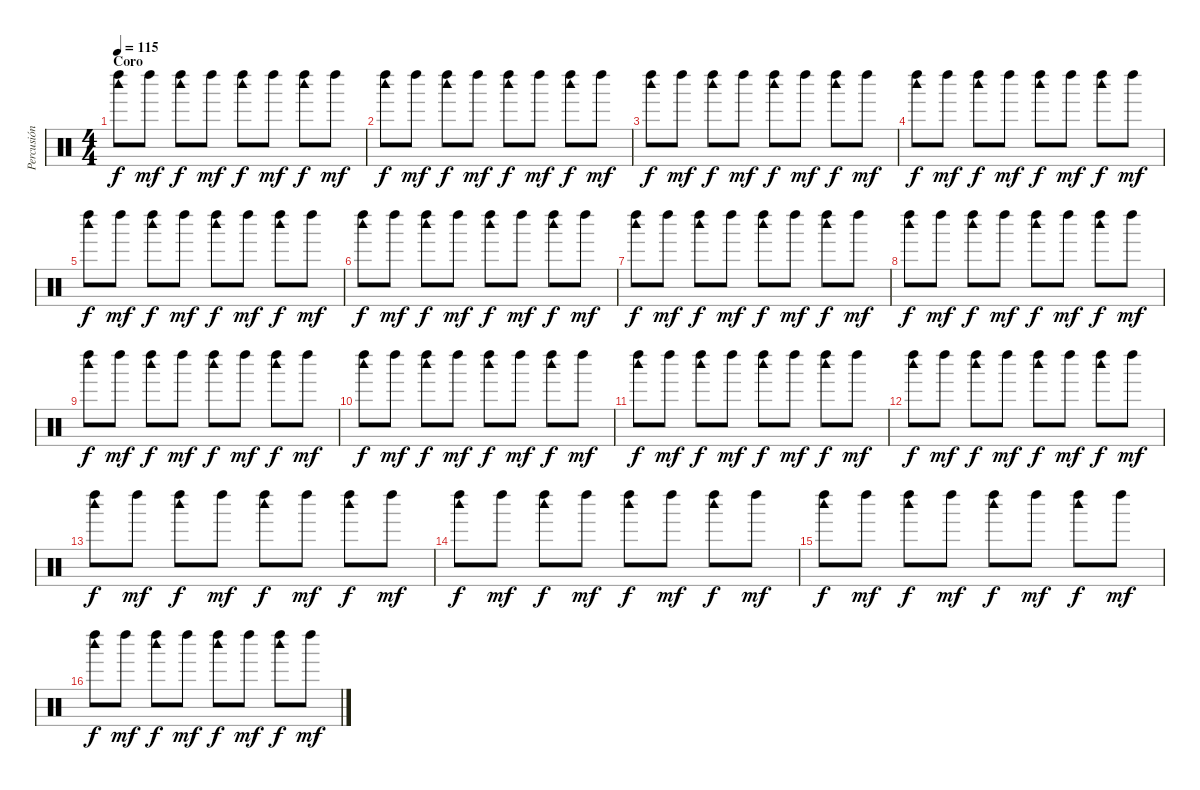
\track ("Percusión" "Percusión") {instrument percussion}
\staff {score}
\articulation defaults
\ts (4 4)
\section ("" "Coro")
\tempo 115
\clef neutral
\ks c
("Woodblock high (hit)" "Left Maraca (hit)").8{dy f} "Left Maraca (hit)".8{dy mf} ("Woodblock high (hit)" "Left Maraca (hit)").8{dy f} "Left Maraca (hit)".8{dy mf} ("Woodblock high (hit)" "Left Maraca (hit)").8{dy f} "Left Maraca (hit)".8{dy mf} ("Woodblock high (hit)" "Left Maraca (hit)").8{dy f} "Left Maraca (hit)".8{dy mf} |
("Woodblock high (hit)" "Left Maraca (hit)").8{dy f} "Left Maraca (hit)".8{dy mf} ("Woodblock high (hit)" "Left Maraca (hit)").8{dy f} "Left Maraca (hit)".8{dy mf} ("Woodblock high (hit)" "Left Maraca (hit)").8{dy f} "Left Maraca (hit)".8{dy mf} ("Woodblock high (hit)" "Left Maraca (hit)").8{dy f} "Left Maraca (hit)".8{dy mf} |
("Woodblock high (hit)" "Left Maraca (hit)").8{dy f} "Left Maraca (hit)".8{dy mf} ("Woodblock high (hit)" "Left Maraca (hit)").8{dy f} "Left Maraca (hit)".8{dy mf} ("Woodblock high (hit)" "Left Maraca (hit)").8{dy f} "Left Maraca (hit)".8{dy mf} ("Woodblock high (hit)" "Left Maraca (hit)").8{dy f} "Left Maraca (hit)".8{dy mf} |
("Woodblock high (hit)" "Left Maraca (hit)").8{dy f} "Left Maraca (hit)".8{dy mf} ("Woodblock high (hit)" "Left Maraca (hit)").8{dy f} "Left Maraca (hit)".8{dy mf} ("Woodblock high (hit)" "Left Maraca (hit)").8{dy f} "Left Maraca (hit)".8{dy mf} ("Woodblock high (hit)" "Left Maraca (hit)").8{dy f} "Left Maraca (hit)".8{dy mf} |
("Woodblock high (hit)" "Left Maraca (hit)").8{dy f} "Left Maraca (hit)".8{dy mf} ("Woodblock high (hit)" "Left Maraca (hit)").8{dy f} "Left Maraca (hit)".8{dy mf} ("Woodblock high (hit)" "Left Maraca (hit)").8{dy f} "Left Maraca (hit)".8{dy mf} ("Woodblock high (hit)" "Left Maraca (hit)").8{dy f} "Left Maraca (hit)".8{dy mf} |
("Woodblock high (hit)" "Left Maraca (hit)").8{dy f} "Left Maraca (hit)".8{dy mf} ("Woodblock high (hit)" "Left Maraca (hit)").8{dy f} "Left Maraca (hit)".8{dy mf} ("Woodblock high (hit)" "Left Maraca (hit)").8{dy f} "Left Maraca (hit)".8{dy mf} ("Woodblock high (hit)" "Left Maraca (hit)").8{dy f} "Left Maraca (hit)".8{dy mf} |
("Woodblock high (hit)" "Left Maraca (hit)").8{dy f} "Left Maraca (hit)".8{dy mf} ("Woodblock high (hit)" "Left Maraca (hit)").8{dy f} "Left Maraca (hit)".8{dy mf} ("Woodblock high (hit)" "Left Maraca (hit)").8{dy f} "Left Maraca (hit)".8{dy mf} ("Woodblock high (hit)" "Left Maraca (hit)").8{dy f} "Left Maraca (hit)".8{dy mf} |
("Woodblock high (hit)" "Left Maraca (hit)").8{dy f} "Left Maraca (hit)".8{dy mf} ("Woodblock high (hit)" "Left Maraca (hit)").8{dy f} "Left Maraca (hit)".8{dy mf} ("Woodblock high (hit)" "Left Maraca (hit)").8{dy f} "Left Maraca (hit)".8{dy mf} ("Woodblock high (hit)" "Left Maraca (hit)").8{dy f} "Left Maraca (hit)".8{dy mf} |
("Woodblock high (hit)" "Left Maraca (hit)").8{dy f} "Left Maraca (hit)".8{dy mf} ("Woodblock high (hit)" "Left Maraca (hit)").8{dy f} "Left Maraca (hit)".8{dy mf} ("Woodblock high (hit)" "Left Maraca (hit)").8{dy f} "Left Maraca (hit)".8{dy mf} ("Woodblock high (hit)" "Left Maraca (hit)").8{dy f} "Left Maraca (hit)".8{dy mf} |
("Woodblock high (hit)" "Left Maraca (hit)").8{dy f} "Left Maraca (hit)".8{dy mf} ("Woodblock high (hit)" "Left Maraca (hit)").8{dy f} "Left Maraca (hit)".8{dy mf} ("Woodblock high (hit)" "Left Maraca (hit)").8{dy f} "Left Maraca (hit)".8{dy mf} ("Woodblock high (hit)" "Left Maraca (hit)").8{dy f} "Left Maraca (hit)".8{dy mf} |
("Woodblock high (hit)" "Left Maraca (hit)").8{dy f} "Left Maraca (hit)".8{dy mf} ("Woodblock high (hit)" "Left Maraca (hit)").8{dy f} "Left Maraca (hit)".8{dy mf} ("Woodblock high (hit)" "Left Maraca (hit)").8{dy f} "Left Maraca (hit)".8{dy mf} ("Woodblock high (hit)" "Left Maraca (hit)").8{dy f} "Left Maraca (hit)".8{dy mf} |
("Woodblock high (hit)" "Left Maraca (hit)").8{dy f} "Left Maraca (hit)".8{dy mf} ("Woodblock high (hit)" "Left Maraca (hit)").8{dy f} "Left Maraca (hit)".8{dy mf} ("Woodblock high (hit)" "Left Maraca (hit)").8{dy f} "Left Maraca (hit)".8{dy mf} ("Woodblock high (hit)" "Left Maraca (hit)").8{dy f} "Left Maraca (hit)".8{dy mf} |
("Woodblock high (hit)" "Left Maraca (hit)").8{dy f} "Left Maraca (hit)".8{dy mf} ("Woodblock high (hit)" "Left Maraca (hit)").8{dy f} "Left Maraca (hit)".8{dy mf} ("Woodblock high (hit)" "Left Maraca (hit)").8{dy f} "Left Maraca (hit)".8{dy mf} ("Woodblock high (hit)" "Left Maraca (hit)").8{dy f} "Left Maraca (hit)".8{dy mf} |
("Woodblock high (hit)" "Left Maraca (hit)").8{dy f} "Left Maraca (hit)".8{dy mf} ("Woodblock high (hit)" "Left Maraca (hit)").8{dy f} "Left Maraca (hit)".8{dy mf} ("Woodblock high (hit)" "Left Maraca (hit)").8{dy f} "Left Maraca (hit)".8{dy mf} ("Woodblock high (hit)" "Left Maraca (hit)").8{dy f} "Left Maraca (hit)".8{dy mf} |
("Woodblock high (hit)" "Left Maraca (hit)").8{dy f} "Left Maraca (hit)".8{dy mf} ("Woodblock high (hit)" "Left Maraca (hit)").8{dy f} "Left Maraca (hit)".8{dy mf} ("Woodblock high (hit)" "Left Maraca (hit)").8{dy f} "Left Maraca (hit)".8{dy mf} ("Woodblock high (hit)" "Left Maraca (hit)").8{dy f} "Left Maraca (hit)".8{dy mf} |
("Woodblock high (hit)" "Left Maraca (hit)").8{dy f} "Left Maraca (hit)".8{dy mf} ("Woodblock high (hit)" "Left Maraca (hit)").8{dy f} "Left Maraca (hit)".8{dy mf} ("Woodblock high (hit)" "Left Maraca (hit)").8{dy f} "Left Maraca (hit)".8{dy mf} ("Woodblock high (hit)" "Left Maraca (hit)").8{dy f} "Left Maraca (hit)".8{dy mf}
